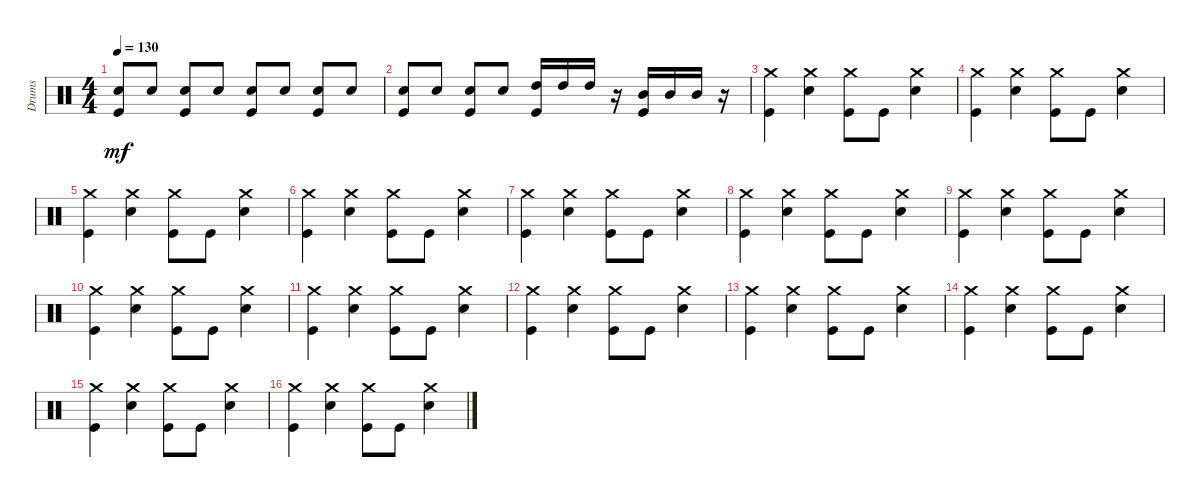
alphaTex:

\defaultSystemsLayout 4
\track ("Drumkit" "Drums") {instrument percussion}
\staff {score}
\articulation defaults
\ts (4 4)
\tempo 130
\clef neutral
\ks c
("Snare (hit) 2" "Kick (hit)").8{dy mf} "Snare (hit) 2".8 ("Snare (hit) 2" "Kick (hit)").8 "Snare (hit) 2".8 ("Snare (hit) 2" "Kick (hit)").8 "Snare (hit) 2".8 ("Snare (hit) 2" "Kick (hit)").8 "Snare (hit) 2".8 |
("Kick (hit)" "Snare (hit) 2").8 "Snare (hit) 2".8 ("Kick (hit)" "Snare (hit) 2").8 "Snare (hit) 2".8 ("Kick (hit)" "High Tom (hit)").16 "High Tom (hit)".16 "High Tom (hit)".16 r.16 ("Kick (hit)" "Mid Tom (hit)").16 "Mid Tom (hit)".16 "Mid Tom (hit)".16 r.16 |
("Kick (hit)" "Crash medium (hit)").4 ("Snare (hit) 2" "Crash medium (hit)").4 ("Kick (hit)" "Crash medium (hit)").8 "Kick (hit)".8 ("Snare (hit) 2" "Crash medium (hit)").4 |
("Kick (hit)" "Crash medium (hit)").4 ("Snare (hit) 2" "Crash medium (hit)").4 ("Kick (hit)" "Crash medium (hit)").8 "Kick (hit)".8 ("Snare (hit) 2" "Crash medium (hit)").4 |
("Kick (hit)" "Crash medium (hit)").4 ("Snare (hit) 2" "Crash medium (hit)").4 ("Kick (hit)" "Crash medium (hit)").8 "Kick (hit)".8 ("Snare (hit) 2" "Crash medium (hit)").4 |
("Kick (hit)" "Crash medium (hit)").4 ("Snare (hit) 2" "Crash medium (hit)").4 ("Kick (hit)" "Crash medium (hit)").8 "Kick (hit)".8 ("Snare (hit) 2" "Crash medium (hit)").4 |
("Kick (hit)" "Crash medium (hit)").4 ("Snare (hit) 2" "Crash medium (hit)").4 ("Kick (hit)" "Crash medium (hit)").8 "Kick (hit)".8 ("Snare (hit) 2" "Crash medium (hit)").4 |
("Kick (hit)" "Crash medium (hit)").4 ("Snare (hit) 2" "Crash medium (hit)").4 ("Kick (hit)" "Crash medium (hit)").8 "Kick (hit)".8 ("Snare (hit) 2" "Crash medium (hit)").4 |
("Kick (hit)" "Crash medium (hit)").4 ("Snare (hit) 2" "Crash medium (hit)").4 ("Kick (hit)" "Crash medium (hit)").8 "Kick (hit)".8 ("Snare (hit) 2" "Crash medium (hit)").4 |
("Kick (hit)" "Crash medium (hit)").4 ("Snare (hit) 2" "Crash medium (hit)").4 ("Kick (hit)" "Crash medium (hit)").8 "Kick (hit)".8 ("Snare (hit) 2" "Crash medium (hit)").4 |
("Kick (hit)" "Crash medium (hit)").4 ("Snare (hit) 2" "Crash medium (hit)").4 ("Kick (hit)" "Crash medium (hit)").8 "Kick (hit)".8 ("Snare (hit) 2" "Crash medium (hit)").4 |
("Kick (hit)" "Crash medium (hit)").4 ("Snare (hit) 2" "Crash medium (hit)").4 ("Kick (hit)" "Crash medium (hit)").8 "Kick (hit)".8 ("Snare (hit) 2" "Crash medium (hit)").4 |
("Kick (hit)" "Crash medium (hit)").4 ("Snare (hit) 2" "Crash medium (hit)").4 ("Kick (hit)" "Crash medium (hit)").8 "Kick (hit)".8 ("Snare (hit) 2" "Crash medium (hit)").4 |
("Kick (hit)" "Crash medium (hit)").4 ("Snare (hit) 2" "Crash medium (hit)").4 ("Kick (hit)" "Crash medium (hit)").8 "Kick (hit)".8 ("Snare (hit) 2" "Crash medium (hit)").4 |
("Kick (hit)" "Crash medium (hit)").4 ("Snare (hit) 2" "Crash medium (hit)").4 ("Kick (hit)" "Crash medium (hit)").8 "Kick (hit)".8 ("Snare (hit) 2" "Crash medium (hit)").4 |
("Kick (hit)" "Crash medium (hit)").4 ("Snare (hit) 2" "Crash medium (hit)").4 ("Kick (hit)" "Crash medium (hit)").8 "Kick (hit)".8 ("Snare (hit) 2" "Crash medium (hit)").4
